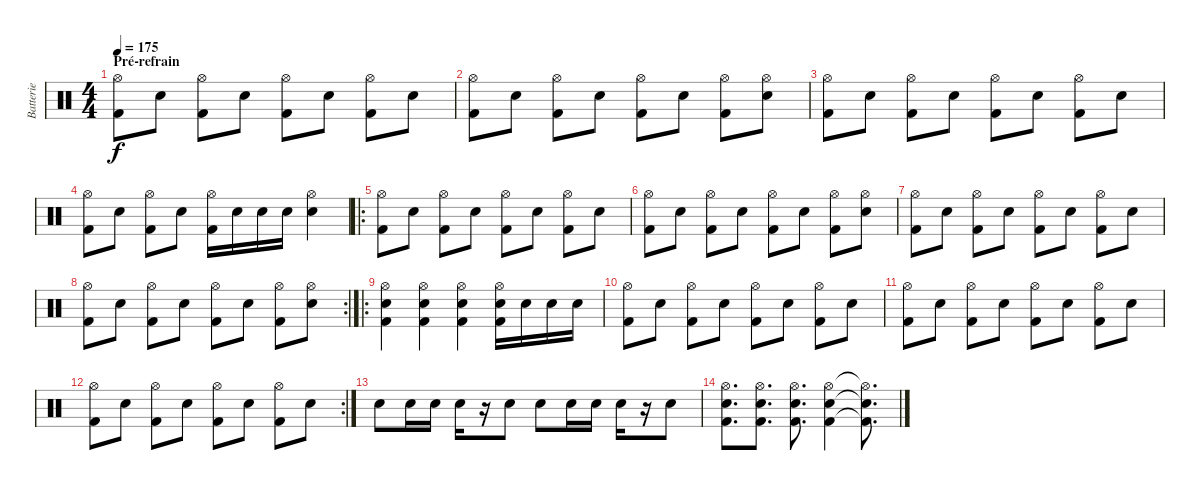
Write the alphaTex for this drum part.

\track ("Batterie" "Batterie") {instrument percussion}
\staff {score}
\articulation defaults
\ts (4 4)
\section ("" "Pré-refrain")
\tempo 175
\clef neutral
\ks c
("Hi-Hat (open)" "Kick (hit) 2").8{dy f} "Electric Snare (hit)".8 ("Hi-Hat (open)" "Kick (hit) 2").8 "Electric Snare (hit)".8 ("Hi-Hat (open)" "Kick (hit) 2").8 "Electric Snare (hit)".8 ("Hi-Hat (open)" "Kick (hit) 2").8 "Electric Snare (hit)".8 |
("Hi-Hat (open)" "Kick (hit) 2").8 "Electric Snare (hit)".8 ("Hi-Hat (open)" "Kick (hit) 2").8 "Electric Snare (hit)".8 ("Hi-Hat (open)" "Kick (hit) 2").8 "Electric Snare (hit)".8 ("Hi-Hat (open)" "Kick (hit) 2").8 ("Hi-Hat (open)" "Electric Snare (hit)").8 |
("Hi-Hat (open)" "Kick (hit) 2").8 "Electric Snare (hit)".8 ("Hi-Hat (open)" "Kick (hit) 2").8 "Electric Snare (hit)".8 ("Hi-Hat (open)" "Kick (hit) 2").8 "Electric Snare (hit)".8 ("Hi-Hat (open)" "Kick (hit) 2").8 "Electric Snare (hit)".8 |
("Hi-Hat (open)" "Kick (hit) 2").8 "Electric Snare (hit)".8 ("Hi-Hat (open)" "Kick (hit) 2").8 "Electric Snare (hit)".8 ("Hi-Hat (open)" "Kick (hit) 2").16 "Electric Snare (hit)".16 "Electric Snare (hit)".16 "Electric Snare (hit)".16 ("Hi-Hat (open)" "Electric Snare (hit)").4 |
\ro
("Hi-Hat (open)" "Kick (hit) 2").8 "Electric Snare (hit)".8 ("Hi-Hat (open)" "Kick (hit) 2").8 "Electric Snare (hit)".8 ("Hi-Hat (open)" "Kick (hit) 2").8 "Electric Snare (hit)".8 ("Hi-Hat (open)" "Kick (hit) 2").8 "Electric Snare (hit)".8 |
("Hi-Hat (open)" "Kick (hit) 2").8 "Electric Snare (hit)".8 ("Hi-Hat (open)" "Kick (hit) 2").8 "Electric Snare (hit)".8 ("Hi-Hat (open)" "Kick (hit) 2").8 "Electric Snare (hit)".8 ("Hi-Hat (open)" "Kick (hit) 2").8 ("Hi-Hat (open)" "Electric Snare (hit)").8 |
("Hi-Hat (open)" "Kick (hit) 2").8 "Electric Snare (hit)".8 ("Hi-Hat (open)" "Kick (hit) 2").8 "Electric Snare (hit)".8 ("Hi-Hat (open)" "Kick (hit) 2").8 "Electric Snare (hit)".8 ("Hi-Hat (open)" "Kick (hit) 2").8 "Electric Snare (hit)".8 |
\rc 2
("Hi-Hat (open)" "Kick (hit) 2").8 "Electric Snare (hit)".8 ("Hi-Hat (open)" "Kick (hit) 2").8 "Electric Snare (hit)".8 ("Hi-Hat (open)" "Kick (hit) 2").8 "Electric Snare (hit)".8 ("Hi-Hat (open)" "Kick (hit) 2").8 ("Hi-Hat (open)" "Electric Snare (hit)").8 |
\ro
("Hi-Hat (open)" "Electric Snare (hit)" "Kick (hit) 2").4 ("Hi-Hat (open)" "Electric Snare (hit)" "Kick (hit) 2").4 ("Hi-Hat (open)" "Electric Snare (hit)" "Kick (hit) 2").4 ("Hi-Hat (open)" "Electric Snare (hit)" "Kick (hit) 2").16 "Electric Snare (hit)".16 "Electric Snare (hit)".16 "Electric Snare (hit)".16 |
("Hi-Hat (open)" "Kick (hit) 2").8 "Electric Snare (hit)".8 ("Hi-Hat (open)" "Kick (hit) 2").8 "Electric Snare (hit)".8 ("Hi-Hat (open)" "Kick (hit) 2").8 "Electric Snare (hit)".8 ("Hi-Hat (open)" "Kick (hit) 2").8 "Electric Snare (hit)".8 |
("Hi-Hat (open)" "Kick (hit) 2").8 "Electric Snare (hit)".8 ("Hi-Hat (open)" "Kick (hit) 2").8 "Electric Snare (hit)".8 ("Hi-Hat (open)" "Kick (hit) 2").8 "Electric Snare (hit)".8 ("Hi-Hat (open)" "Kick (hit) 2").8 "Electric Snare (hit)".8 |
\rc 2
("Hi-Hat (open)" "Kick (hit) 2").8 "Electric Snare (hit)".8 ("Hi-Hat (open)" "Kick (hit) 2").8 "Electric Snare (hit)".8 ("Hi-Hat (open)" "Kick (hit) 2").8 "Electric Snare (hit)".8 ("Hi-Hat (open)" "Kick (hit) 2").8 "Electric Snare (hit)".8 |
"Electric Snare (hit)".8 "Electric Snare (hit)".16 "Electric Snare (hit)".16 "Electric Snare (hit)".16 r.16 "Electric Snare (hit)".8 "Electric Snare (hit)".8 "Electric Snare (hit)".16 "Electric Snare (hit)".16 "Electric Snare (hit)".16 r.16 "Electric Snare (hit)".8 |
("Hi-Hat (open)" "Electric Snare (hit)" "Kick (hit) 2").8{d} ("Hi-Hat (open)" "Electric Snare (hit)" "Kick (hit) 2").8{d} ("Hi-Hat (open)" "Electric Snare (hit)" "Kick (hit) 2").8{d} ("Hi-Hat (open)" "Electric Snare (hit)" "Kick (hit) 2").4 ("Hi-Hat (open)"{t} "Electric Snare (hit)"{t} "Kick (hit) 2"{t}).8{d}
